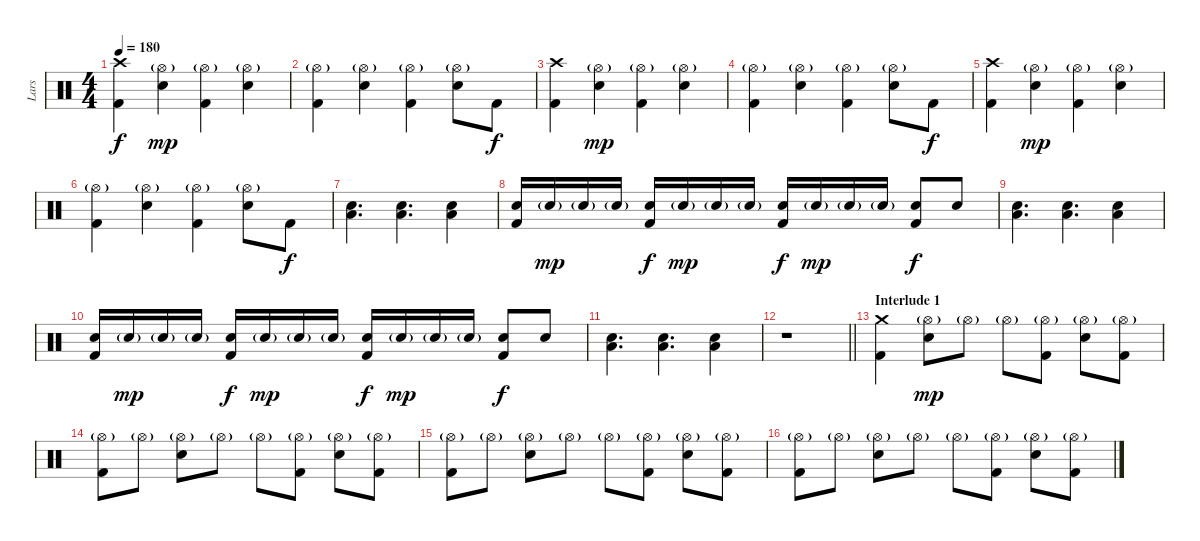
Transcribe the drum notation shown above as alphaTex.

\track ("Lars" "Lars") {instrument percussion}
\staff {score}
\articulation defaults
\ts (4 4)
\tempo 180
\clef neutral
\ks c
("Crash high (hit)" "Kick (hit) 2").4{dy f} ("Hi-Hat (open)"{g} "Electric Snare (hit)").4{dy mp} ("Hi-Hat (open)"{g} "Kick (hit) 2").4 ("Hi-Hat (open)"{g} "Electric Snare (hit)").4 |
("Hi-Hat (open)"{g} "Kick (hit) 2").4 ("Hi-Hat (open)"{g} "Electric Snare (hit)").4 ("Hi-Hat (open)"{g} "Kick (hit) 2").4 ("Hi-Hat (open)"{g} "Electric Snare (hit)").8 "Kick (hit) 2".8{dy f} |
("Crash high (hit)" "Kick (hit) 2").4 ("Hi-Hat (open)"{g} "Electric Snare (hit)").4{dy mp} ("Hi-Hat (open)"{g} "Kick (hit) 2").4 ("Hi-Hat (open)"{g} "Electric Snare (hit)").4 |
("Hi-Hat (open)"{g} "Kick (hit) 2").4 ("Hi-Hat (open)"{g} "Electric Snare (hit)").4 ("Hi-Hat (open)"{g} "Kick (hit) 2").4 ("Hi-Hat (open)"{g} "Electric Snare (hit)").8 "Kick (hit) 2".8{dy f} |
("Crash high (hit)" "Kick (hit) 2").4 ("Hi-Hat (open)"{g} "Electric Snare (hit)").4{dy mp} ("Hi-Hat (open)"{g} "Kick (hit) 2").4 ("Hi-Hat (open)"{g} "Electric Snare (hit)").4 |
("Hi-Hat (open)"{g} "Kick (hit) 2").4 ("Hi-Hat (open)"{g} "Electric Snare (hit)").4 ("Hi-Hat (open)"{g} "Kick (hit) 2").4 ("Hi-Hat (open)"{g} "Electric Snare (hit)").8 "Kick (hit) 2".8{dy f} |
("Low Floor Tom (hit)" "Electric Snare (hit)").4{d} ("Low Floor Tom (hit)" "Electric Snare (hit)").4{d} ("Low Floor Tom (hit)" "Electric Snare (hit)").4 |
("Electric Snare (hit)" "Kick (hit) 2").16 "Electric Snare (hit)"{g}.16{dy mp} "Electric Snare (hit)"{g}.16 "Electric Snare (hit)"{g}.16 ("Electric Snare (hit)" "Kick (hit) 2").16{dy f} "Electric Snare (hit)"{g}.16{dy mp} "Electric Snare (hit)"{g}.16 "Electric Snare (hit)"{g}.16 ("Electric Snare (hit)" "Kick (hit) 2").16{dy f} "Electric Snare (hit)"{g}.16{dy mp} "Electric Snare (hit)"{g}.16 "Electric Snare (hit)"{g}.16 ("Electric Snare (hit)" "Kick (hit) 2").8{dy f} "Electric Snare (hit)".8 |
("Low Floor Tom (hit)" "Electric Snare (hit)").4{d} ("Low Floor Tom (hit)" "Electric Snare (hit)").4{d} ("Low Floor Tom (hit)" "Electric Snare (hit)").4 |
("Electric Snare (hit)" "Kick (hit) 2").16 "Electric Snare (hit)"{g}.16{dy mp} "Electric Snare (hit)"{g}.16 "Electric Snare (hit)"{g}.16 ("Electric Snare (hit)" "Kick (hit) 2").16{dy f} "Electric Snare (hit)"{g}.16{dy mp} "Electric Snare (hit)"{g}.16 "Electric Snare (hit)"{g}.16 ("Electric Snare (hit)" "Kick (hit) 2").16{dy f} "Electric Snare (hit)"{g}.16{dy mp} "Electric Snare (hit)"{g}.16 "Electric Snare (hit)"{g}.16 ("Electric Snare (hit)" "Kick (hit) 2").8{dy f} "Electric Snare (hit)".8 |
("Low Floor Tom (hit)" "Electric Snare (hit)").4{d} ("Low Floor Tom (hit)" "Electric Snare (hit)").4{d} ("Low Floor Tom (hit)" "Electric Snare (hit)").4 |
\barLineRight lightlight
r.1 |
\section ("" "Interlude 1")
("Crash medium (hit)" "Kick (hit) 2").4 ("Hi-Hat (open)"{g} "Electric Snare (hit)").8{dy mp} "Hi-Hat (open)"{g}.8 "Hi-Hat (open)"{g}.8 ("Hi-Hat (open)"{g} "Kick (hit) 2").8 ("Hi-Hat (open)"{g} "Electric Snare (hit)").8 ("Hi-Hat (open)"{g} "Kick (hit) 2").8 |
("Hi-Hat (open)"{g} "Kick (hit) 2").8 "Hi-Hat (open)"{g}.8 ("Hi-Hat (open)"{g} "Electric Snare (hit)").8 "Hi-Hat (open)"{g}.8 "Hi-Hat (open)"{g}.8 ("Hi-Hat (open)"{g} "Kick (hit) 2").8 ("Hi-Hat (open)"{g} "Electric Snare (hit)").8 ("Hi-Hat (open)"{g} "Kick (hit) 2").8 |
("Hi-Hat (open)"{g} "Kick (hit) 2").8 "Hi-Hat (open)"{g}.8 ("Hi-Hat (open)"{g} "Electric Snare (hit)").8 "Hi-Hat (open)"{g}.8 "Hi-Hat (open)"{g}.8 ("Hi-Hat (open)"{g} "Kick (hit) 2").8 ("Hi-Hat (open)"{g} "Electric Snare (hit)").8 ("Hi-Hat (open)"{g} "Kick (hit) 2").8 |
("Hi-Hat (open)"{g} "Kick (hit) 2").8 "Hi-Hat (open)"{g}.8 ("Hi-Hat (open)"{g} "Electric Snare (hit)").8 "Hi-Hat (open)"{g}.8 "Hi-Hat (open)"{g}.8 ("Hi-Hat (open)"{g} "Kick (hit) 2").8 ("Hi-Hat (open)"{g} "Electric Snare (hit)").8 ("Hi-Hat (open)"{g} "Kick (hit) 2").8
